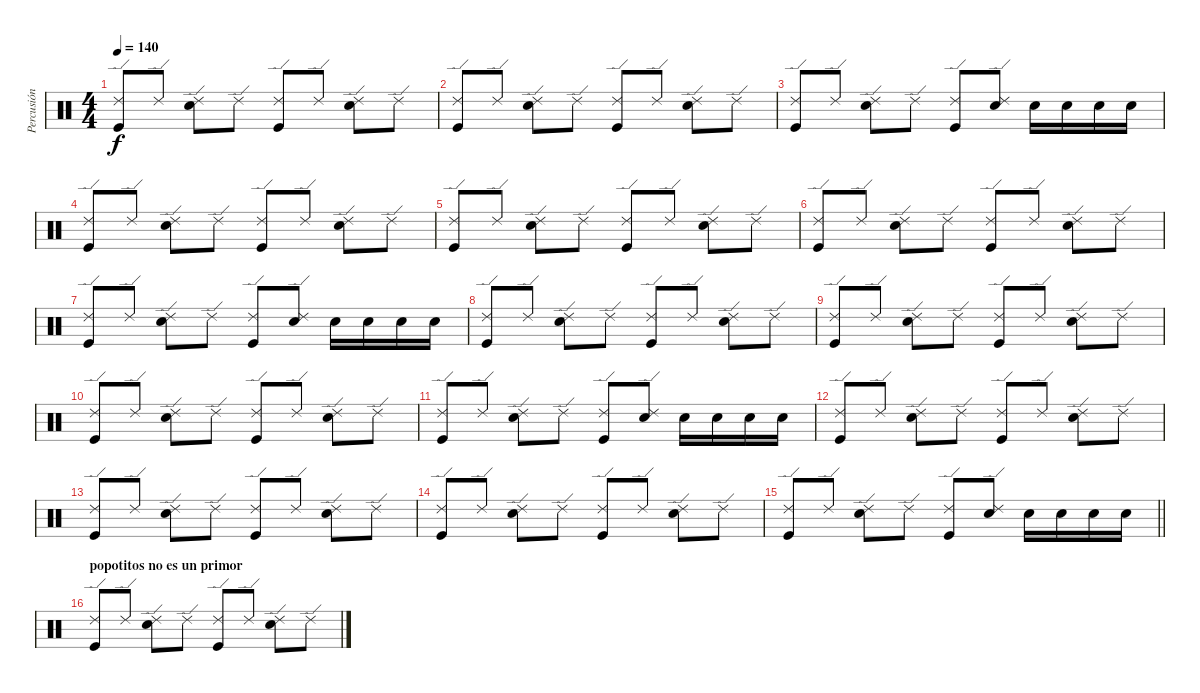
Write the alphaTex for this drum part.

\track ("Percusión" "Percusión") {instrument percussion}
\staff {score}
\articulation defaults
\ts (4 4)
\tempo 140
\clef neutral
\ks c
("Ride (edge) 2" "Kick (hit)").8{dy f} "Ride (edge) 2".8 ("Ride (edge) 2" "Snare (hit) 2").8 "Ride (edge) 2".8 ("Ride (edge) 2" "Kick (hit)").8 "Ride (edge) 2".8 ("Ride (edge) 2" "Snare (hit) 2").8 "Ride (edge) 2".8 |
("Ride (edge) 2" "Kick (hit)").8 "Ride (edge) 2".8 ("Ride (edge) 2" "Snare (hit) 2").8 "Ride (edge) 2".8 ("Ride (edge) 2" "Kick (hit)").8 "Ride (edge) 2".8 ("Ride (edge) 2" "Snare (hit) 2").8 "Ride (edge) 2".8 |
("Ride (edge) 2" "Kick (hit)").8 "Ride (edge) 2".8 ("Ride (edge) 2" "Snare (hit) 2").8 "Ride (edge) 2".8 ("Ride (edge) 2" "Kick (hit)").8 ("Ride (edge) 2" "Snare (hit) 2").8 "Snare (hit) 2".16 "Snare (hit) 2".16 "Snare (hit) 2".16 "Snare (hit) 2".16 |
("Ride (edge) 2" "Kick (hit)").8 "Ride (edge) 2".8 ("Ride (edge) 2" "Snare (hit) 2").8 "Ride (edge) 2".8 ("Ride (edge) 2" "Kick (hit)").8 "Ride (edge) 2".8 ("Ride (edge) 2" "Snare (hit) 2").8 "Ride (edge) 2".8 |
("Ride (edge) 2" "Kick (hit)").8 "Ride (edge) 2".8 ("Ride (edge) 2" "Snare (hit) 2").8 "Ride (edge) 2".8 ("Ride (edge) 2" "Kick (hit)").8 "Ride (edge) 2".8 ("Ride (edge) 2" "Snare (hit) 2").8 "Ride (edge) 2".8 |
("Ride (edge) 2" "Kick (hit)").8 "Ride (edge) 2".8 ("Ride (edge) 2" "Snare (hit) 2").8 "Ride (edge) 2".8 ("Ride (edge) 2" "Kick (hit)").8 "Ride (edge) 2".8 ("Ride (edge) 2" "Snare (hit) 2").8 "Ride (edge) 2".8 |
("Ride (edge) 2" "Kick (hit)").8 "Ride (edge) 2".8 ("Ride (edge) 2" "Snare (hit) 2").8 "Ride (edge) 2".8 ("Ride (edge) 2" "Kick (hit)").8 ("Ride (edge) 2" "Snare (hit) 2").8 "Snare (hit) 2".16 "Snare (hit) 2".16 "Snare (hit) 2".16 "Snare (hit) 2".16 |
("Ride (edge) 2" "Kick (hit)").8 "Ride (edge) 2".8 ("Ride (edge) 2" "Snare (hit) 2").8 "Ride (edge) 2".8 ("Ride (edge) 2" "Kick (hit)").8 "Ride (edge) 2".8 ("Ride (edge) 2" "Snare (hit) 2").8 "Ride (edge) 2".8 |
("Ride (edge) 2" "Kick (hit)").8 "Ride (edge) 2".8 ("Ride (edge) 2" "Snare (hit) 2").8 "Ride (edge) 2".8 ("Ride (edge) 2" "Kick (hit)").8 "Ride (edge) 2".8 ("Ride (edge) 2" "Snare (hit) 2").8 "Ride (edge) 2".8 |
("Ride (edge) 2" "Kick (hit)").8 "Ride (edge) 2".8 ("Ride (edge) 2" "Snare (hit) 2").8 "Ride (edge) 2".8 ("Ride (edge) 2" "Kick (hit)").8 "Ride (edge) 2".8 ("Ride (edge) 2" "Snare (hit) 2").8 "Ride (edge) 2".8 |
("Ride (edge) 2" "Kick (hit)").8 "Ride (edge) 2".8 ("Ride (edge) 2" "Snare (hit) 2").8 "Ride (edge) 2".8 ("Ride (edge) 2" "Kick (hit)").8 ("Ride (edge) 2" "Snare (hit) 2").8 "Snare (hit) 2".16 "Snare (hit) 2".16 "Snare (hit) 2".16 "Snare (hit) 2".16 |
("Ride (edge) 2" "Kick (hit)").8 "Ride (edge) 2".8 ("Ride (edge) 2" "Snare (hit) 2").8 "Ride (edge) 2".8 ("Ride (edge) 2" "Kick (hit)").8 "Ride (edge) 2".8 ("Ride (edge) 2" "Snare (hit) 2").8 "Ride (edge) 2".8 |
("Ride (edge) 2" "Kick (hit)").8 "Ride (edge) 2".8 ("Ride (edge) 2" "Snare (hit) 2").8 "Ride (edge) 2".8 ("Ride (edge) 2" "Kick (hit)").8 "Ride (edge) 2".8 ("Ride (edge) 2" "Snare (hit) 2").8 "Ride (edge) 2".8 |
("Ride (edge) 2" "Kick (hit)").8 "Ride (edge) 2".8 ("Ride (edge) 2" "Snare (hit) 2").8 "Ride (edge) 2".8 ("Ride (edge) 2" "Kick (hit)").8 "Ride (edge) 2".8 ("Ride (edge) 2" "Snare (hit) 2").8 "Ride (edge) 2".8 |
\barLineRight lightlight
("Ride (edge) 2" "Kick (hit)").8 "Ride (edge) 2".8 ("Ride (edge) 2" "Snare (hit) 2").8 "Ride (edge) 2".8 ("Ride (edge) 2" "Kick (hit)").8 ("Ride (edge) 2" "Snare (hit) 2").8 "Snare (hit) 2".16 "Snare (hit) 2".16 "Snare (hit) 2".16 "Snare (hit) 2".16 |
\section ("" "popotitos no es un primor")
("Ride (edge) 2" "Kick (hit)").8 "Ride (edge) 2".8 ("Ride (edge) 2" "Snare (hit) 2").8 "Ride (edge) 2".8 ("Ride (edge) 2" "Kick (hit)").8 "Ride (edge) 2".8 ("Ride (edge) 2" "Snare (hit) 2").8 "Ride (edge) 2".8
